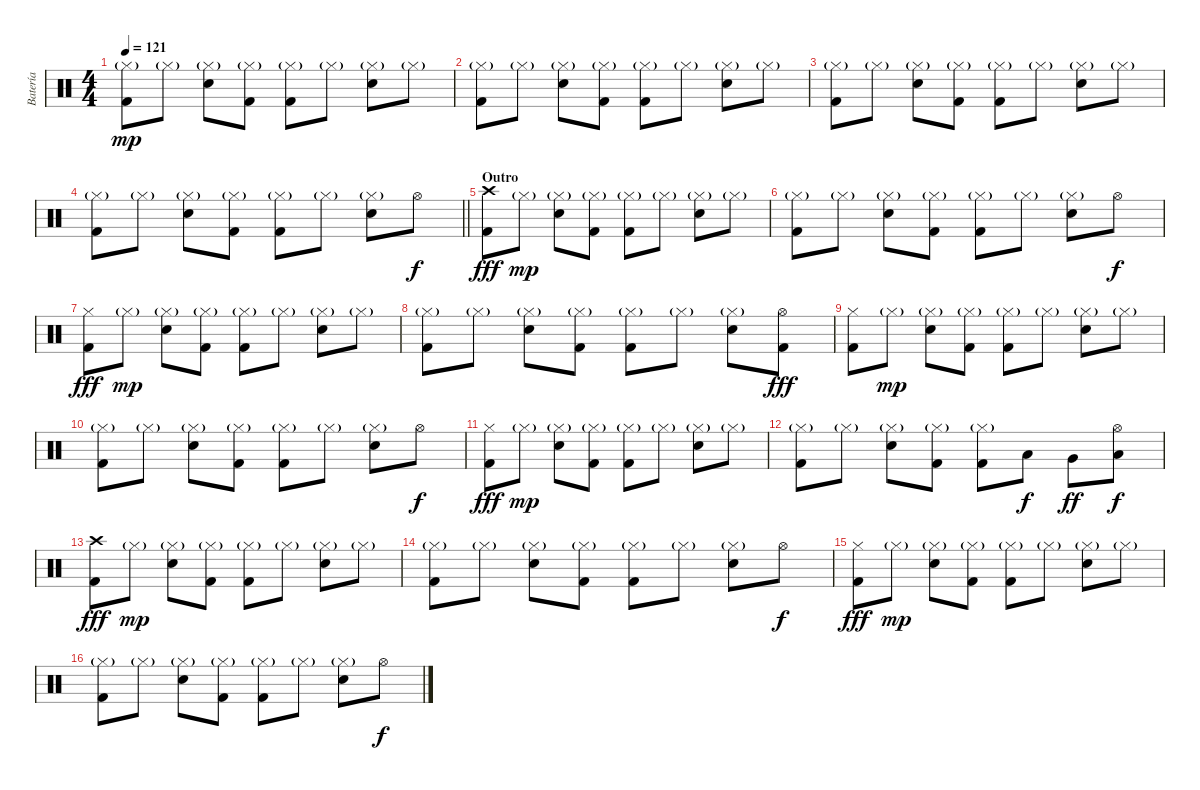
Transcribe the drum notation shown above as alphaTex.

\track ("Batería" "Batería") {instrument percussion}
\staff {score}
\articulation defaults
\ts (4 4)
\tempo 121
\clef neutral
\ks c
("Kick (hit) 2" "Hi-Hat (closed)"{g}).8{dy mp} "Hi-Hat (closed)"{g}.8 ("Snare (hit) 2" "Hi-Hat (closed)"{g}).8 ("Kick (hit) 2" "Hi-Hat (closed)"{g}).8 ("Kick (hit) 2" "Hi-Hat (closed)"{g}).8 "Hi-Hat (closed)"{g}.8 ("Snare (hit) 2" "Hi-Hat (closed)"{g}).8 "Hi-Hat (closed)"{g}.8 |
("Kick (hit) 2" "Hi-Hat (closed)"{g}).8 "Hi-Hat (closed)"{g}.8 ("Snare (hit) 2" "Hi-Hat (closed)"{g}).8 ("Kick (hit) 2" "Hi-Hat (closed)"{g}).8 ("Kick (hit) 2" "Hi-Hat (closed)"{g}).8 "Hi-Hat (closed)"{g}.8 ("Snare (hit) 2" "Hi-Hat (closed)"{g}).8 "Hi-Hat (closed)"{g}.8 |
("Kick (hit) 2" "Hi-Hat (closed)"{g}).8 "Hi-Hat (closed)"{g}.8 ("Snare (hit) 2" "Hi-Hat (closed)"{g}).8 ("Kick (hit) 2" "Hi-Hat (closed)"{g}).8 ("Kick (hit) 2" "Hi-Hat (closed)"{g}).8 "Hi-Hat (closed)"{g}.8 ("Snare (hit) 2" "Hi-Hat (closed)"{g}).8 "Hi-Hat (closed)"{g}.8 |
\barLineRight lightlight
("Kick (hit) 2" "Hi-Hat (closed)"{g}).8 "Hi-Hat (closed)"{g}.8 ("Snare (hit) 2" "Hi-Hat (closed)"{g}).8 ("Kick (hit) 2" "Hi-Hat (closed)"{g}).8 ("Kick (hit) 2" "Hi-Hat (closed)"{g}).8 "Hi-Hat (closed)"{g}.8 ("Snare (hit) 2" "Hi-Hat (closed)"{g}).8 "Hi-Hat (open)".8{dy f} |
\section ("" "Outro")
("Kick (hit) 2" "Crash high (hit)").8{dy fff} "Hi-Hat (closed)"{g}.8{dy mp} ("Snare (hit) 2" "Hi-Hat (closed)"{g}).8 ("Kick (hit) 2" "Hi-Hat (closed)"{g}).8 ("Kick (hit) 2" "Hi-Hat (closed)"{g}).8 "Hi-Hat (closed)"{g}.8 ("Snare (hit) 2" "Hi-Hat (closed)"{g}).8 "Hi-Hat (closed)"{g}.8 |
("Kick (hit) 2" "Hi-Hat (closed)"{g}).8 "Hi-Hat (closed)"{g}.8 ("Snare (hit) 2" "Hi-Hat (closed)"{g}).8 ("Kick (hit) 2" "Hi-Hat (closed)"{g}).8 ("Kick (hit) 2" "Hi-Hat (closed)"{g}).8 "Hi-Hat (closed)"{g}.8 ("Snare (hit) 2" "Hi-Hat (closed)"{g}).8 "Hi-Hat (open)".8{dy f} |
("Kick (hit) 2" "Hi-Hat (closed)").8{dy fff} "Hi-Hat (closed)"{g}.8{dy mp} ("Snare (hit) 2" "Hi-Hat (closed)"{g}).8 ("Kick (hit) 2" "Hi-Hat (closed)"{g}).8 ("Kick (hit) 2" "Hi-Hat (closed)"{g}).8 "Hi-Hat (closed)"{g}.8 ("Snare (hit) 2" "Hi-Hat (closed)"{g}).8 "Hi-Hat (closed)"{g}.8 |
("Kick (hit) 2" "Hi-Hat (closed)"{g}).8 "Hi-Hat (closed)"{g}.8 ("Snare (hit) 2" "Hi-Hat (closed)"{g}).8 ("Kick (hit) 2" "Hi-Hat (closed)"{g}).8 ("Kick (hit) 2" "Hi-Hat (closed)"{g}).8 "Hi-Hat (closed)"{g}.8 ("Snare (hit) 2" "Hi-Hat (closed)"{g}).8 ("Kick (hit) 2" "Hi-Hat (open)").8{dy fff} |
("Kick (hit) 2" "Hi-Hat (closed)").8 "Hi-Hat (closed)"{g}.8{dy mp} ("Snare (hit) 2" "Hi-Hat (closed)"{g}).8 ("Kick (hit) 2" "Hi-Hat (closed)"{g}).8 ("Kick (hit) 2" "Hi-Hat (closed)"{g}).8 "Hi-Hat (closed)"{g}.8 ("Snare (hit) 2" "Hi-Hat (closed)"{g}).8 "Hi-Hat (closed)"{g}.8 |
("Kick (hit) 2" "Hi-Hat (closed)"{g}).8 "Hi-Hat (closed)"{g}.8 ("Snare (hit) 2" "Hi-Hat (closed)"{g}).8 ("Kick (hit) 2" "Hi-Hat (closed)"{g}).8 ("Kick (hit) 2" "Hi-Hat (closed)"{g}).8 "Hi-Hat (closed)"{g}.8 ("Snare (hit) 2" "Hi-Hat (closed)"{g}).8 "Hi-Hat (open)".8{dy f} |
("Kick (hit) 2" "Hi-Hat (closed)").8{dy fff} "Hi-Hat (closed)"{g}.8{dy mp} ("Snare (hit) 2" "Hi-Hat (closed)"{g}).8 ("Kick (hit) 2" "Hi-Hat (closed)"{g}).8 ("Kick (hit) 2" "Hi-Hat (closed)"{g}).8 "Hi-Hat (closed)"{g}.8 ("Snare (hit) 2" "Hi-Hat (closed)"{g}).8 "Hi-Hat (closed)"{g}.8 |
("Kick (hit) 2" "Hi-Hat (closed)"{g}).8 "Hi-Hat (closed)"{g}.8 ("Snare (hit) 2" "Hi-Hat (closed)"{g}).8 ("Kick (hit) 2" "Hi-Hat (closed)"{g}).8 ("Kick (hit) 2" "Hi-Hat (closed)"{g}).8 "Low Tom (hit)".8{dy f} "Very Low Tom (hit)".8{dy ff} ("Low Floor Tom (hit)" "Hi-Hat (open)").8{dy f} |
("Kick (hit) 2" "Crash high (hit)").8{dy fff} "Hi-Hat (closed)"{g}.8{dy mp} ("Snare (hit) 2" "Hi-Hat (closed)"{g}).8 ("Kick (hit) 2" "Hi-Hat (closed)"{g}).8 ("Kick (hit) 2" "Hi-Hat (closed)"{g}).8 "Hi-Hat (closed)"{g}.8 ("Snare (hit) 2" "Hi-Hat (closed)"{g}).8 "Hi-Hat (closed)"{g}.8 |
("Kick (hit) 2" "Hi-Hat (closed)"{g}).8 "Hi-Hat (closed)"{g}.8 ("Snare (hit) 2" "Hi-Hat (closed)"{g}).8 ("Kick (hit) 2" "Hi-Hat (closed)"{g}).8 ("Kick (hit) 2" "Hi-Hat (closed)"{g}).8 "Hi-Hat (closed)"{g}.8 ("Snare (hit) 2" "Hi-Hat (closed)"{g}).8 "Hi-Hat (open)".8{dy f} |
("Kick (hit) 2" "Hi-Hat (closed)").8{dy fff} "Hi-Hat (closed)"{g}.8{dy mp} ("Snare (hit) 2" "Hi-Hat (closed)"{g}).8 ("Kick (hit) 2" "Hi-Hat (closed)"{g}).8 ("Kick (hit) 2" "Hi-Hat (closed)"{g}).8 "Hi-Hat (closed)"{g}.8 ("Snare (hit) 2" "Hi-Hat (closed)"{g}).8 "Hi-Hat (closed)"{g}.8 |
("Kick (hit) 2" "Hi-Hat (closed)"{g}).8 "Hi-Hat (closed)"{g}.8 ("Snare (hit) 2" "Hi-Hat (closed)"{g}).8 ("Kick (hit) 2" "Hi-Hat (closed)"{g}).8 ("Kick (hit) 2" "Hi-Hat (closed)"{g}).8 "Hi-Hat (closed)"{g}.8 ("Snare (hit) 2" "Hi-Hat (closed)"{g}).8 "Hi-Hat (open)".8{dy f}
